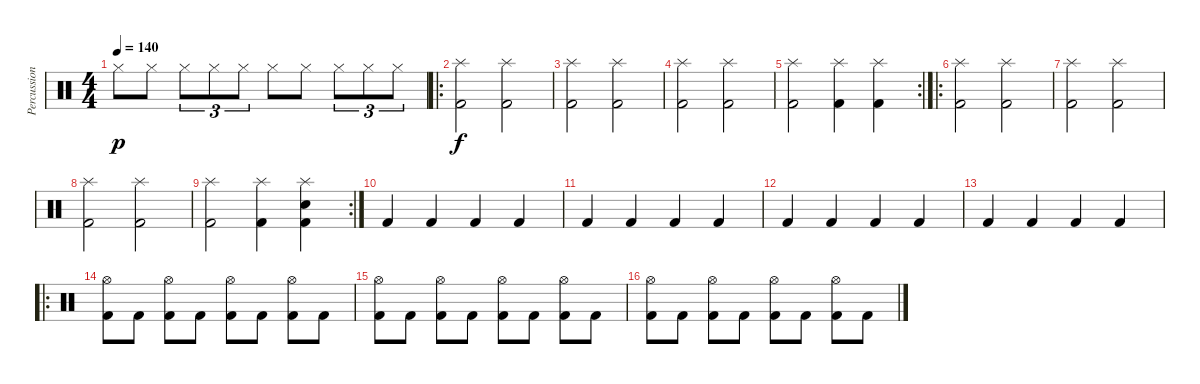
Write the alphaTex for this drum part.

\track ("Percussion" "Percussion") {instrument percussion}
\staff {score}
\articulation defaults
\ts (4 4)
\tempo 140
\clef neutral
\ks c "Hi-Hat (closed)".8{dy p} "Hi-Hat (closed)".8 "Hi-Hat (closed)".8{tu (3 2)} "Hi-Hat (closed)".8{tu (3 2)} "Hi-Hat (closed)".8{tu (3 2)} "Hi-Hat (closed)".8 "Hi-Hat (closed)".8 "Hi-Hat (closed)".8{tu (3 2)} "Hi-Hat (closed)".8{tu (3 2)} "Hi-Hat (closed)".8{tu (3 2)}
|
\ro
("Splash (hit)" "Kick (hit) 2").2{dy f} ("Splash (hit)" "Kick (hit) 2").2 |
("Splash (hit)" "Kick (hit) 2").2 ("Splash (hit)" "Kick (hit) 2").2 |
("Splash (hit)" "Kick (hit) 2").2 ("Splash (hit)" "Kick (hit) 2").2 |
\rc 2
("Splash (hit)" "Kick (hit) 2").2 ("Splash (hit)" "Kick (hit) 2").4 ("Splash (hit)" "Kick (hit) 2").4 |
\ro
("Splash (hit)" "Kick (hit) 2").2 ("Splash (hit)" "Kick (hit) 2").2 |
("Splash (hit)" "Kick (hit) 2").2 ("Splash (hit)" "Kick (hit) 2").2 |
("Splash (hit)" "Kick (hit) 2").2 ("Splash (hit)" "Kick (hit) 2").2 |
\rc 2
("Splash (hit)" "Kick (hit) 2").2 ("Splash (hit)" "Kick (hit) 2").4 ("Splash (hit)" "Snare (hit) 2" "Kick (hit) 2").4 |
"Kick (hit) 2".4 "Kick (hit) 2".4 "Kick (hit) 2".4 "Kick (hit) 2".4 |
"Kick (hit) 2".4 "Kick (hit) 2".4 "Kick (hit) 2".4 "Kick (hit) 2".4 |
"Kick (hit) 2".4 "Kick (hit) 2".4 "Kick (hit) 2".4 "Kick (hit) 2".4 |
"Kick (hit) 2".4 "Kick (hit) 2".4 "Kick (hit) 2".4 "Kick (hit) 2".4 |
\ro
("Hi-Hat (open)" "Kick (hit) 2").8 "Kick (hit) 2".8 ("Hi-Hat (open)" "Kick (hit) 2").8 "Kick (hit) 2".8 ("Hi-Hat (open)" "Kick (hit) 2").8 "Kick (hit) 2".8 ("Hi-Hat (open)" "Kick (hit) 2").8 "Kick (hit) 2".8 |
("Hi-Hat (open)" "Kick (hit) 2").8 "Kick (hit) 2".8 ("Hi-Hat (open)" "Kick (hit) 2").8 "Kick (hit) 2".8 ("Hi-Hat (open)" "Kick (hit) 2").8 "Kick (hit) 2".8 ("Hi-Hat (open)" "Kick (hit) 2").8 "Kick (hit) 2".8 |
("Hi-Hat (open)" "Kick (hit) 2").8 "Kick (hit) 2".8 ("Hi-Hat (open)" "Kick (hit) 2").8 "Kick (hit) 2".8 ("Hi-Hat (open)" "Kick (hit) 2").8 "Kick (hit) 2".8 ("Hi-Hat (open)" "Kick (hit) 2").8 "Kick (hit) 2".8
